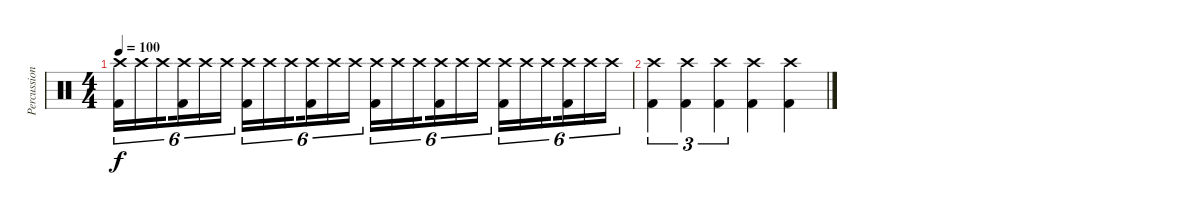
\track ("Percussion" "Percussion") {instrument percussion}
\staff {score}
\articulation defaults
\ts (4 4)
\tempo 100
\clef neutral
\ks c
("Crash high (hit)" "Kick (hit) 2").16{tu (6 4) dy f} "Crash high (hit)".16{tu (6 4)} "Crash high (hit)".16{tu (6 4) beam splitsecondary} ("Crash high (hit)" "Kick (hit) 2").16{tu (6 4)} "Crash high (hit)".16{tu (6 4)} "Crash high (hit)".16{tu (6 4)} ("Crash high (hit)" "Kick (hit) 2").16{tu (6 4)} "Crash high (hit)".16{tu (6 4)} "Crash high (hit)".16{tu (6 4) beam splitsecondary} ("Crash high (hit)" "Kick (hit) 2").16{tu (6 4)} "Crash high (hit)".16{tu (6 4)} "Crash high (hit)".16{tu (6 4)} ("Crash high (hit)" "Kick (hit) 2").16{tu (6 4)} "Crash high (hit)".16{tu (6 4)} "Crash high (hit)".16{tu (6 4) beam splitsecondary} ("Crash high (hit)" "Kick (hit) 2").16{tu (6 4)} "Crash high (hit)".16{tu (6 4)} "Crash high (hit)".16{tu (6 4)} ("Crash high (hit)" "Kick (hit) 2").16{tu (6 4)} "Crash high (hit)".16{tu (6 4)} "Crash high (hit)".16{tu (6 4) beam splitsecondary} ("Crash high (hit)" "Kick (hit) 2").16{tu (6 4)} "Crash high (hit)".16{tu (6 4)} "Crash high (hit)".16{tu (6 4)} |
("Crash high (hit)" "Kick (hit) 2").4{tu (3 2)} ("Crash high (hit)" "Kick (hit) 2").4{tu (3 2)} ("Crash high (hit)" "Kick (hit) 2").4{tu (3 2)} ("Crash high (hit)" "Kick (hit) 2").4 ("Crash high (hit)" "Kick (hit) 2").4
